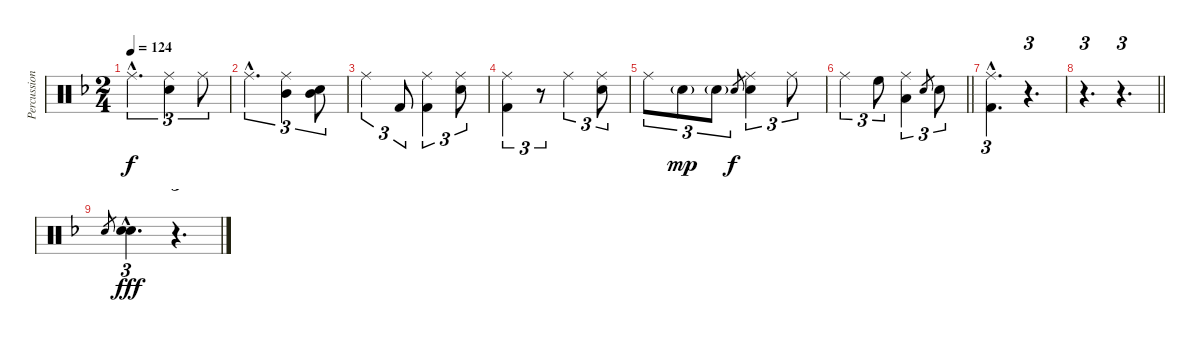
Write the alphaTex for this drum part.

\track ("Percussions" "Percussion") {instrument percussion}
\staff {score}
\articulation defaults
\ts (2 4)
\tempo 124
\clef neutral
\ks dminor "Ride (middle)"{hac}.4{d tu (3 2) dy f}
("Ride (middle)" "Snare (hit) 2").4{tu (3 2)} "Ride (middle)".8{tu (3 2)} |
"Ride (middle)"{hac}.4{d tu (3 2)} ("Ride (middle)" "Mid Tom (hit)").4{tu (3 2)} ("Mid Tom (hit)" "Snare (hit) 2").8{tu (3 2)} |
"Ride (middle)".4{tu (3 2)} "Kick (hit) 2".8{tu (3 2)} ("Ride (middle)" "Kick (hit) 2").4{tu (3 2)} ("Ride (middle)" "Snare (hit) 2").8{tu (3 2)} |
("Ride (middle)" "Kick (hit) 2").4{tu (3 2)} r.8{tu (3 2)} "Ride (middle)".4{tu (3 2)} ("Ride (middle)" "Snare (hit) 2").8{tu (3 2)} |
"Ride (middle)".8{tu (3 2)} "Snare (hit) 2"{g}.8{tu (3 2) dy mp} "Snare (hit) 2"{g}.8{tu (3 2)} "Snare (hit) 2".8{gr dy f} ("Ride (middle)" "Snare (hit) 2").4{tu (3 2)} "Ride (middle)".8{tu (3 2)} |
\barLineRight lightlight "Ride (middle)".4{tu (3 2)} "High Floor Tom (hit)".8{tu (3 2)}
("Ride (middle)" "Low Tom (hit)").4{tu (3 2)} "Snare (hit) 2".8{gr} "Snare (hit) 2".8{tu (3 2)} |
("Ride (middle)"{hac} "Kick (hit) 2"{hac}).4{d tu (3 2)} r.4{d tu (3 2)} |
\barLineRight lightlight
r.4{d tu (3 2)} r.4{d tu (3 2)} |
"Snare (hit) 2".8{gr} ("Snare (hit) 2"{hac} "Electric Snare (hit)"{hac}).4{d tu (3 2) dy fff} r.4{d tu (3 2)}
